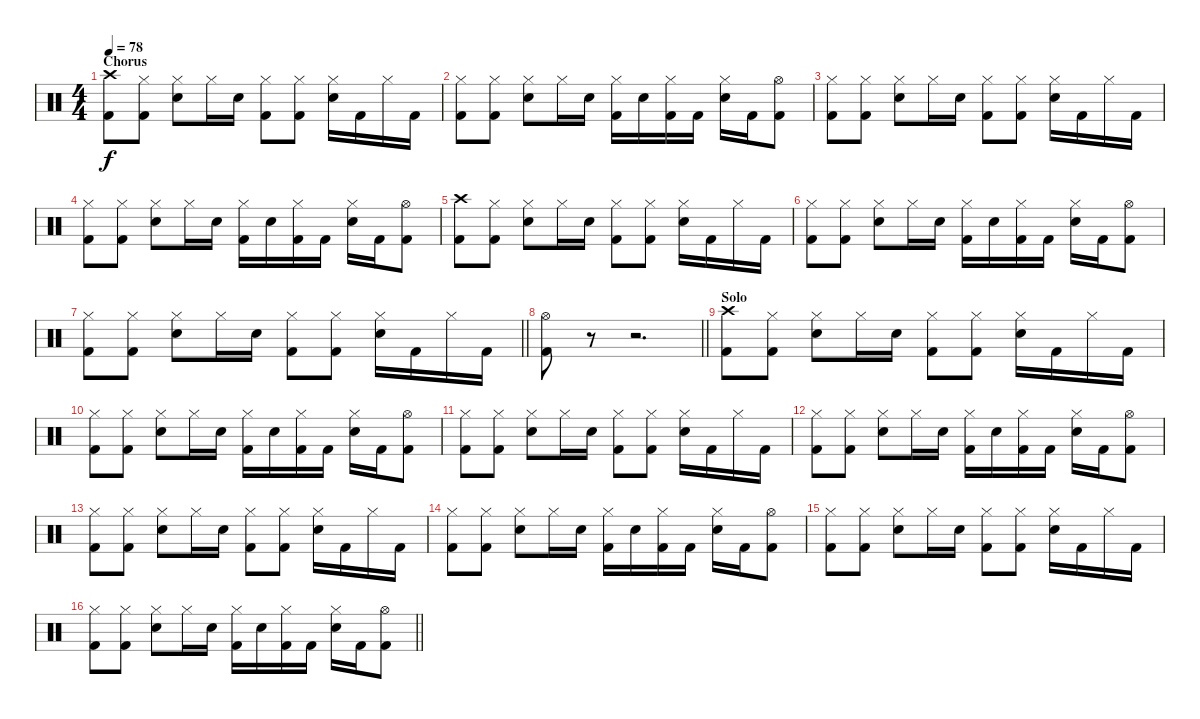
\track "" {instrument percussion}
\staff {score}
\articulation defaults
\ts (4 4)
\section ("" "Chorus")
\tempo 78
\clef neutral
\ks c
("Crash high (hit)" "Kick (hit) 2").8{dy f} ("Hi-Hat (closed)" "Kick (hit) 2").8 ("Hi-Hat (closed)" "Snare (hit) 2").8 "Hi-Hat (closed)".16 "Snare (hit) 2".16 ("Hi-Hat (closed)" "Kick (hit) 2").8 ("Hi-Hat (closed)" "Kick (hit) 2").8 ("Hi-Hat (closed)" "Snare (hit) 2").16 "Kick (hit) 2".16 "Hi-Hat (closed)".16 "Kick (hit) 2".16 |
("Hi-Hat (closed)" "Kick (hit) 2").8 ("Hi-Hat (closed)" "Kick (hit) 2").8 ("Hi-Hat (closed)" "Snare (hit) 2").8 "Hi-Hat (closed)".16 "Snare (hit) 2".16 ("Hi-Hat (closed)" "Kick (hit) 2").16 "Snare (hit) 2".16 ("Hi-Hat (closed)" "Kick (hit) 2").16 "Kick (hit) 2".16 ("Hi-Hat (closed)" "Snare (hit) 2").16 "Kick (hit) 2".16 ("Hi-Hat (open)" "Kick (hit) 2").8 |
("Hi-Hat (closed)" "Kick (hit) 2").8 ("Hi-Hat (closed)" "Kick (hit) 2").8 ("Hi-Hat (closed)" "Snare (hit) 2").8 "Hi-Hat (closed)".16 "Snare (hit) 2".16 ("Hi-Hat (closed)" "Kick (hit) 2").8 ("Hi-Hat (closed)" "Kick (hit) 2").8 ("Hi-Hat (closed)" "Snare (hit) 2").16 "Kick (hit) 2".16 "Hi-Hat (closed)".16 "Kick (hit) 2".16 |
("Hi-Hat (closed)" "Kick (hit) 2").8 ("Hi-Hat (closed)" "Kick (hit) 2").8 ("Hi-Hat (closed)" "Snare (hit) 2").8 "Hi-Hat (closed)".16 "Snare (hit) 2".16 ("Hi-Hat (closed)" "Kick (hit) 2").16 "Snare (hit) 2".16 ("Hi-Hat (closed)" "Kick (hit) 2").16 "Kick (hit) 2".16 ("Hi-Hat (closed)" "Snare (hit) 2").16 "Kick (hit) 2".16 ("Hi-Hat (open)" "Kick (hit) 2").8 |
("Crash high (hit)" "Kick (hit) 2").8 ("Hi-Hat (closed)" "Kick (hit) 2").8 ("Hi-Hat (closed)" "Snare (hit) 2").8 "Hi-Hat (closed)".16 "Snare (hit) 2".16 ("Hi-Hat (closed)" "Kick (hit) 2").8 ("Hi-Hat (closed)" "Kick (hit) 2").8 ("Hi-Hat (closed)" "Snare (hit) 2").16 "Kick (hit) 2".16 "Hi-Hat (closed)".16 "Kick (hit) 2".16 |
("Hi-Hat (closed)" "Kick (hit) 2").8 ("Hi-Hat (closed)" "Kick (hit) 2").8 ("Hi-Hat (closed)" "Snare (hit) 2").8 "Hi-Hat (closed)".16 "Snare (hit) 2".16 ("Hi-Hat (closed)" "Kick (hit) 2").16 "Snare (hit) 2".16 ("Hi-Hat (closed)" "Kick (hit) 2").16 "Kick (hit) 2".16 ("Hi-Hat (closed)" "Snare (hit) 2").16 "Kick (hit) 2".16 ("Hi-Hat (open)" "Kick (hit) 2").8 |
\barLineRight lightlight
("Hi-Hat (closed)" "Kick (hit) 2").8 ("Hi-Hat (closed)" "Kick (hit) 2").8 ("Hi-Hat (closed)" "Snare (hit) 2").8 "Hi-Hat (closed)".16 "Snare (hit) 2".16 ("Hi-Hat (closed)" "Kick (hit) 2").8 ("Hi-Hat (closed)" "Kick (hit) 2").8 ("Hi-Hat (closed)" "Snare (hit) 2").16 "Kick (hit) 2".16 "Hi-Hat (closed)".16 "Kick (hit) 2".16 |
\section ("" "")
\barLineRight lightlight
("Hi-Hat (open)" "Kick (hit) 2").8 r.8 r.2{d} |
\section ("" "Solo")
("Crash high (hit)" "Kick (hit) 2").8 ("Hi-Hat (closed)" "Kick (hit) 2").8 ("Hi-Hat (closed)" "Snare (hit) 2").8 "Hi-Hat (closed)".16 "Snare (hit) 2".16 ("Hi-Hat (closed)" "Kick (hit) 2").8 ("Hi-Hat (closed)" "Kick (hit) 2").8 ("Hi-Hat (closed)" "Snare (hit) 2").16{txt ""} "Kick (hit) 2".16 "Hi-Hat (closed)".16 "Kick (hit) 2".16 |
("Hi-Hat (closed)" "Kick (hit) 2").8 ("Hi-Hat (closed)" "Kick (hit) 2").8 ("Hi-Hat (closed)" "Snare (hit) 2").8 "Hi-Hat (closed)".16 "Snare (hit) 2".16 ("Hi-Hat (closed)" "Kick (hit) 2").16 "Snare (hit) 2".16 ("Hi-Hat (closed)" "Kick (hit) 2").16 "Kick (hit) 2".16 ("Hi-Hat (closed)" "Snare (hit) 2").16 "Kick (hit) 2".16 ("Hi-Hat (open)" "Kick (hit) 2").8 |
("Hi-Hat (closed)" "Kick (hit) 2").8 ("Hi-Hat (closed)" "Kick (hit) 2").8 ("Hi-Hat (closed)" "Snare (hit) 2").8 "Hi-Hat (closed)".16 "Snare (hit) 2".16 ("Hi-Hat (closed)" "Kick (hit) 2").8 ("Hi-Hat (closed)" "Kick (hit) 2").8 ("Hi-Hat (closed)" "Snare (hit) 2").16 "Kick (hit) 2".16 "Hi-Hat (closed)".16 "Kick (hit) 2".16 |
("Hi-Hat (closed)" "Kick (hit) 2").8 ("Hi-Hat (closed)" "Kick (hit) 2").8 ("Hi-Hat (closed)" "Snare (hit) 2").8 "Hi-Hat (closed)".16 "Snare (hit) 2".16 ("Hi-Hat (closed)" "Kick (hit) 2").16 "Snare (hit) 2".16 ("Hi-Hat (closed)" "Kick (hit) 2").16 "Kick (hit) 2".16 ("Hi-Hat (closed)" "Snare (hit) 2").16 "Kick (hit) 2".16 ("Hi-Hat (open)" "Kick (hit) 2").8 |
("Hi-Hat (closed)" "Kick (hit) 2").8 ("Hi-Hat (closed)" "Kick (hit) 2").8 ("Hi-Hat (closed)" "Snare (hit) 2").8 "Hi-Hat (closed)".16 "Snare (hit) 2".16 ("Hi-Hat (closed)" "Kick (hit) 2").8 ("Hi-Hat (closed)" "Kick (hit) 2").8 ("Hi-Hat (closed)" "Snare (hit) 2").16 "Kick (hit) 2".16 "Hi-Hat (closed)".16 "Kick (hit) 2".16 |
("Hi-Hat (closed)" "Kick (hit) 2").8 ("Hi-Hat (closed)" "Kick (hit) 2").8 ("Hi-Hat (closed)" "Snare (hit) 2").8 "Hi-Hat (closed)".16 "Snare (hit) 2".16 ("Hi-Hat (closed)" "Kick (hit) 2").16 "Snare (hit) 2".16 ("Hi-Hat (closed)" "Kick (hit) 2").16 "Kick (hit) 2".16 ("Hi-Hat (closed)" "Snare (hit) 2").16 "Kick (hit) 2".16 ("Hi-Hat (open)" "Kick (hit) 2").8 |
("Hi-Hat (closed)" "Kick (hit) 2").8 ("Hi-Hat (closed)" "Kick (hit) 2").8 ("Hi-Hat (closed)" "Snare (hit) 2").8 "Hi-Hat (closed)".16 "Snare (hit) 2".16 ("Hi-Hat (closed)" "Kick (hit) 2").8 ("Hi-Hat (closed)" "Kick (hit) 2").8 ("Hi-Hat (closed)" "Snare (hit) 2").16 "Kick (hit) 2".16 "Hi-Hat (closed)".16 "Kick (hit) 2".16 |
\barLineRight lightlight
("Hi-Hat (closed)" "Kick (hit) 2").8 ("Hi-Hat (closed)" "Kick (hit) 2").8 ("Hi-Hat (closed)" "Snare (hit) 2").8 "Hi-Hat (closed)".16 "Snare (hit) 2".16 ("Hi-Hat (closed)" "Kick (hit) 2").16 "Snare (hit) 2".16 ("Hi-Hat (closed)" "Kick (hit) 2").16 "Kick (hit) 2".16 ("Hi-Hat (closed)" "Snare (hit) 2").16 "Kick (hit) 2".16 ("Hi-Hat (open)" "Kick (hit) 2").8
